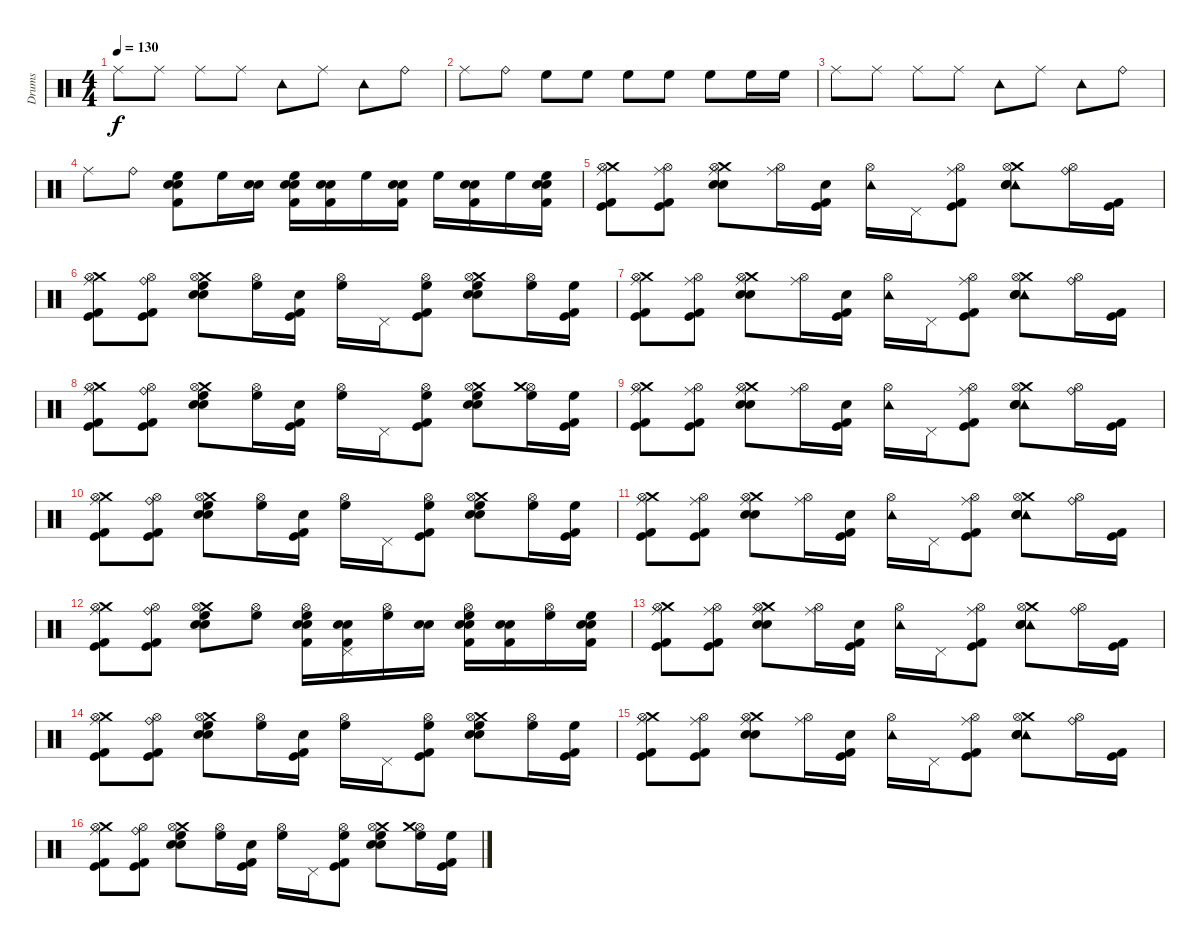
\track ("Drums" "Drums") {instrument percussion}
\staff {score}
\articulation defaults
\ts (4 4)
\tempo 130
\clef neutral
\ks c "Ride (middle)".8{dy f} "Ride (middle)".8 "Ride (middle)".8 "Ride (middle)".8 "Tambourine (hit)".8 "Ride (middle)".8 "Tambourine (hit)".8 "Ride (bell)".8
|
"Ride (middle)".8 "Ride (bell)".8 "High Floor Tom (hit)".8 "High Floor Tom (hit)".8 "High Floor Tom (hit)".8 "High Floor Tom (hit)".8 "High Floor Tom (hit)".8 "High Floor Tom (hit)".16 "High Floor Tom (hit)".16 |
"Ride (middle)".8 "Ride (middle)".8 "Ride (middle)".8 "Ride (middle)".8 "Tambourine (hit)".8 "Ride (middle)".8 "Tambourine (hit)".8 "Ride (bell)".8 |
"Ride (middle)".8 "Ride (bell)".8 ("High Floor Tom (hit)" "Electric Snare (hit)" "Snare (hit) 2" "Kick (hit) 2").8 "High Floor Tom (hit)".16 ("Electric Snare (hit)" "Electric Snare (hit)").16 ("High Floor Tom (hit)" "Snare (hit) 2" "Electric Snare (hit)" "Kick (hit) 2").16 ("Electric Snare (hit)" "Snare (hit) 2" "Kick (hit) 2").16 "High Floor Tom (hit)".16 ("Electric Snare (hit)" "Snare (hit) 2" "Kick (hit) 2").16 "High Floor Tom (hit)".16 ("Electric Snare (hit)" "Snare (hit) 2" "Kick (hit) 2").16 "High Floor Tom (hit)".16 ("High Floor Tom (hit)" "Electric Snare (hit)" "Snare (hit) 2" "Kick (hit) 2").16 |
("Ride (middle)" "Kick (hit) 2" "Kick (hit)" "Crash medium (hit)" "Hi-Hat (open)").8 ("Ride (middle)" "Kick (hit) 2" "Kick (hit)" "Hi-Hat (open)").8 ("Ride (middle)" "Snare (hit) 2" "Electric Snare (hit)" "Crash medium (hit)" "Hi-Hat (open)").8 ("Ride (middle)" "Hi-Hat (open)").16 ("Kick (hit) 2" "Kick (hit)" "Electric Snare (hit)").16 ("Tambourine (hit)" "Hi-Hat (open)").16 "Pedal Hi-Hat (hit)".16 ("Ride (middle)" "Kick (hit) 2" "Kick (hit)" "Hi-Hat (open)").8 ("Tambourine (hit)" "Snare (hit) 2" "Electric Snare (hit)" "Crash medium (hit)" "Hi-Hat (open)").8 ("Ride (bell)" "Hi-Hat (open)").16 ("Kick (hit) 2" "Kick (hit)").16 |
("Ride (middle)" "Kick (hit) 2" "Kick (hit)" "Crash medium (hit)" "Hi-Hat (open)").8 ("Ride (bell)" "Kick (hit) 2" "Kick (hit)" "Hi-Hat (open)").8 ("High Floor Tom (hit)" "Snare (hit) 2" "Electric Snare (hit)" "Crash medium (hit)" "Hi-Hat (open)").8 ("High Floor Tom (hit)" "Hi-Hat (open)").16 ("Kick (hit) 2" "Kick (hit)" "Electric Snare (hit)").16 ("High Floor Tom (hit)" "Hi-Hat (open)").16 "Pedal Hi-Hat (hit)".16 ("High Floor Tom (hit)" "Kick (hit) 2" "Kick (hit)" "Hi-Hat (open)").8 ("High Floor Tom (hit)" "Snare (hit) 2" "Electric Snare (hit)" "Crash medium (hit)" "Hi-Hat (open)").8 ("High Floor Tom (hit)" "Hi-Hat (open)").16 ("High Floor Tom (hit)" "Kick (hit) 2" "Kick (hit)").16 |
("Ride (middle)" "Kick (hit) 2" "Kick (hit)" "Crash medium (hit)" "Hi-Hat (open)").8 ("Ride (middle)" "Kick (hit) 2" "Kick (hit)" "Hi-Hat (open)").8 ("Ride (middle)" "Snare (hit) 2" "Electric Snare (hit)" "Crash medium (hit)" "Hi-Hat (open)").8 ("Ride (middle)" "Hi-Hat (open)").16 ("Kick (hit) 2" "Kick (hit)" "Electric Snare (hit)").16 ("Tambourine (hit)" "Hi-Hat (open)").16 "Pedal Hi-Hat (hit)".16 ("Ride (middle)" "Kick (hit) 2" "Kick (hit)" "Hi-Hat (open)").8 ("Tambourine (hit)" "Snare (hit) 2" "Electric Snare (hit)" "Crash medium (hit)" "Hi-Hat (open)").8 ("Ride (bell)" "Hi-Hat (open)").16 ("Kick (hit) 2" "Kick (hit)").16 |
("Ride (middle)" "Kick (hit) 2" "Kick (hit)" "Crash medium (hit)" "Hi-Hat (open)").8 ("Ride (bell)" "Kick (hit) 2" "Kick (hit)" "Hi-Hat (open)").8 ("High Floor Tom (hit)" "Snare (hit) 2" "Electric Snare (hit)" "Crash medium (hit)" "Hi-Hat (open)").8 ("High Floor Tom (hit)" "Hi-Hat (open)").16 ("Kick (hit) 2" "Kick (hit)" "Electric Snare (hit)").16 ("High Floor Tom (hit)" "Hi-Hat (open)").16 "Pedal Hi-Hat (hit)".16 ("High Floor Tom (hit)" "Kick (hit) 2" "Kick (hit)" "Hi-Hat (open)").8 ("High Floor Tom (hit)" "Snare (hit) 2" "Electric Snare (hit)" "Crash medium (hit)" "Hi-Hat (open)").8 ("High Floor Tom (hit)" "Hi-Hat (open)" "Crash medium (hit)").16 ("High Floor Tom (hit)" "Kick (hit) 2" "Kick (hit)").16 |
("Ride (middle)" "Kick (hit) 2" "Kick (hit)" "Crash medium (hit)" "Hi-Hat (open)").8 ("Ride (middle)" "Kick (hit) 2" "Kick (hit)" "Hi-Hat (open)").8 ("Ride (middle)" "Snare (hit) 2" "Electric Snare (hit)" "Crash medium (hit)" "Hi-Hat (open)").8 ("Ride (middle)" "Hi-Hat (open)").16 ("Kick (hit) 2" "Kick (hit)" "Electric Snare (hit)").16 ("Tambourine (hit)" "Hi-Hat (open)").16 "Pedal Hi-Hat (hit)".16 ("Ride (middle)" "Kick (hit) 2" "Kick (hit)" "Hi-Hat (open)").8 ("Tambourine (hit)" "Snare (hit) 2" "Electric Snare (hit)" "Crash medium (hit)" "Hi-Hat (open)").8 ("Ride (bell)" "Hi-Hat (open)").16 ("Kick (hit) 2" "Kick (hit)").16 |
("Ride (middle)" "Kick (hit) 2" "Kick (hit)" "Crash medium (hit)" "Hi-Hat (open)").8 ("Ride (bell)" "Kick (hit) 2" "Kick (hit)" "Hi-Hat (open)").8 ("High Floor Tom (hit)" "Snare (hit) 2" "Electric Snare (hit)" "Crash medium (hit)" "Hi-Hat (open)").8 ("High Floor Tom (hit)" "Hi-Hat (open)").16 ("Kick (hit) 2" "Kick (hit)" "Electric Snare (hit)").16 ("High Floor Tom (hit)" "Hi-Hat (open)").16 "Pedal Hi-Hat (hit)".16 ("High Floor Tom (hit)" "Kick (hit) 2" "Kick (hit)" "Hi-Hat (open)").8 ("High Floor Tom (hit)" "Snare (hit) 2" "Electric Snare (hit)" "Crash medium (hit)" "Hi-Hat (open)").8 ("High Floor Tom (hit)" "Hi-Hat (open)").16 ("High Floor Tom (hit)" "Kick (hit) 2" "Kick (hit)").16 |
("Ride (middle)" "Kick (hit) 2" "Kick (hit)" "Crash medium (hit)" "Hi-Hat (open)").8 ("Ride (middle)" "Kick (hit) 2" "Kick (hit)" "Hi-Hat (open)").8 ("Ride (middle)" "Snare (hit) 2" "Electric Snare (hit)" "Crash medium (hit)" "Hi-Hat (open)").8 ("Ride (middle)" "Hi-Hat (open)").16 ("Kick (hit) 2" "Kick (hit)" "Electric Snare (hit)").16 ("Tambourine (hit)" "Hi-Hat (open)").16 "Pedal Hi-Hat (hit)".16 ("Ride (middle)" "Kick (hit) 2" "Kick (hit)" "Hi-Hat (open)").8 ("Tambourine (hit)" "Snare (hit) 2" "Electric Snare (hit)" "Crash medium (hit)" "Hi-Hat (open)").8 ("Ride (bell)" "Hi-Hat (open)").16 ("Kick (hit) 2" "Kick (hit)").16 |
("Ride (middle)" "Kick (hit) 2" "Kick (hit)" "Crash medium (hit)" "Hi-Hat (open)").8 ("Ride (bell)" "Kick (hit) 2" "Kick (hit)" "Hi-Hat (open)").8 ("High Floor Tom (hit)" "Snare (hit) 2" "Electric Snare (hit)" "Crash medium (hit)" "Hi-Hat (open)").8 ("High Floor Tom (hit)" "Hi-Hat (open)").8 ("High Floor Tom (hit)" "Hi-Hat (open)" "Electric Snare (hit)" "Snare (hit) 2" "Kick (hit) 2").16 ("Electric Snare (hit)" "Snare (hit) 2" "Kick (hit) 2" "Pedal Hi-Hat (hit)").16 ("High Floor Tom (hit)" "Hi-Hat (open)").16 ("Electric Snare (hit)" "Electric Snare (hit)").16 ("High Floor Tom (hit)" "Hi-Hat (open)" "Snare (hit) 2" "Electric Snare (hit)" "Kick (hit) 2").16 ("Electric Snare (hit)" "Snare (hit) 2" "Kick (hit) 2").16 ("High Floor Tom (hit)" "Hi-Hat (open)").16 ("High Floor Tom (hit)" "Electric Snare (hit)" "Snare (hit) 2" "Kick (hit) 2").16 |
("Ride (middle)" "Kick (hit) 2" "Kick (hit)" "Crash medium (hit)" "Hi-Hat (open)").8 ("Ride (middle)" "Kick (hit) 2" "Kick (hit)" "Hi-Hat (open)").8 ("Ride (middle)" "Snare (hit) 2" "Electric Snare (hit)" "Crash medium (hit)" "Hi-Hat (open)").8 ("Ride (middle)" "Hi-Hat (open)").16 ("Kick (hit) 2" "Kick (hit)" "Electric Snare (hit)").16 ("Tambourine (hit)" "Hi-Hat (open)").16 "Pedal Hi-Hat (hit)".16 ("Ride (middle)" "Kick (hit) 2" "Kick (hit)" "Hi-Hat (open)").8 ("Tambourine (hit)" "Snare (hit) 2" "Electric Snare (hit)" "Crash medium (hit)" "Hi-Hat (open)").8 ("Ride (bell)" "Hi-Hat (open)").16 ("Kick (hit) 2" "Kick (hit)").16 |
("Ride (middle)" "Kick (hit) 2" "Kick (hit)" "Crash medium (hit)" "Hi-Hat (open)").8 ("Ride (bell)" "Kick (hit) 2" "Kick (hit)" "Hi-Hat (open)").8 ("High Floor Tom (hit)" "Snare (hit) 2" "Electric Snare (hit)" "Crash medium (hit)" "Hi-Hat (open)").8 ("High Floor Tom (hit)" "Hi-Hat (open)").16 ("Kick (hit) 2" "Kick (hit)" "Electric Snare (hit)").16 ("High Floor Tom (hit)" "Hi-Hat (open)").16 "Pedal Hi-Hat (hit)".16 ("High Floor Tom (hit)" "Kick (hit) 2" "Kick (hit)" "Hi-Hat (open)").8 ("High Floor Tom (hit)" "Snare (hit) 2" "Electric Snare (hit)" "Crash medium (hit)" "Hi-Hat (open)").8 ("High Floor Tom (hit)" "Hi-Hat (open)").16 ("High Floor Tom (hit)" "Kick (hit) 2" "Kick (hit)").16 |
("Ride (middle)" "Kick (hit) 2" "Kick (hit)" "Crash medium (hit)" "Hi-Hat (open)").8 ("Ride (middle)" "Kick (hit) 2" "Kick (hit)" "Hi-Hat (open)").8 ("Ride (middle)" "Snare (hit) 2" "Electric Snare (hit)" "Crash medium (hit)" "Hi-Hat (open)").8 ("Ride (middle)" "Hi-Hat (open)").16 ("Kick (hit) 2" "Kick (hit)" "Electric Snare (hit)").16 ("Tambourine (hit)" "Hi-Hat (open)").16 "Pedal Hi-Hat (hit)".16 ("Ride (middle)" "Kick (hit) 2" "Kick (hit)" "Hi-Hat (open)").8 ("Tambourine (hit)" "Snare (hit) 2" "Electric Snare (hit)" "Crash medium (hit)" "Hi-Hat (open)").8 ("Ride (bell)" "Hi-Hat (open)").16 ("Kick (hit) 2" "Kick (hit)").16 |
("Ride (middle)" "Kick (hit) 2" "Kick (hit)" "Crash medium (hit)" "Hi-Hat (open)").8 ("Ride (bell)" "Kick (hit) 2" "Kick (hit)" "Hi-Hat (open)").8 ("High Floor Tom (hit)" "Snare (hit) 2" "Electric Snare (hit)" "Crash medium (hit)" "Hi-Hat (open)").8 ("High Floor Tom (hit)" "Hi-Hat (open)").16 ("Kick (hit) 2" "Kick (hit)" "Electric Snare (hit)").16 ("High Floor Tom (hit)" "Hi-Hat (open)").16 "Pedal Hi-Hat (hit)".16 ("High Floor Tom (hit)" "Kick (hit) 2" "Kick (hit)" "Hi-Hat (open)").8 ("High Floor Tom (hit)" "Snare (hit) 2" "Electric Snare (hit)" "Crash medium (hit)" "Hi-Hat (open)").8 ("High Floor Tom (hit)" "Hi-Hat (open)" "Crash medium (hit)").16 ("High Floor Tom (hit)" "Kick (hit) 2" "Kick (hit)").16
